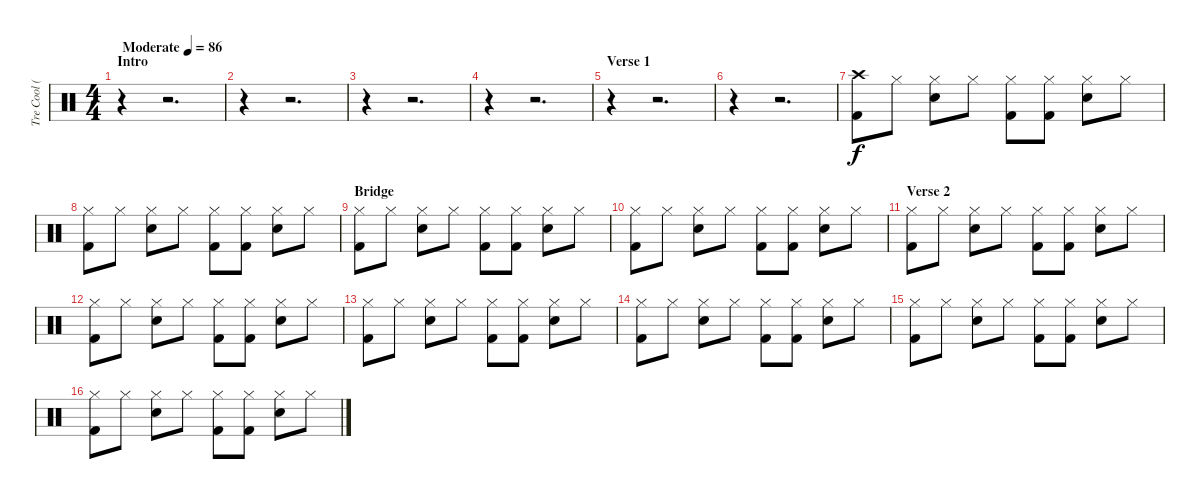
\track ("Tre Cool (Drums)" "Tre Cool (") {instrument percussion}
\staff {score}
\articulation defaults
\ts (4 4)
\section ("" "Intro")
\tempo (86 "Moderate")
\clef neutral
\ks c
r.4{dy f} r.2{d} |
r.4 r.2{d} |
r.4 r.2{d} |
r.4 r.2{d} |
\section ("" "Verse 1")
r.4 r.2{d} |
r.4 r.2{d} |
("Crash high (hit)" "Kick (hit) 2").8 "Hi-Hat (closed)".8 ("Hi-Hat (closed)" "Snare (hit) 2").8 "Hi-Hat (closed)".8 ("Hi-Hat (closed)" "Kick (hit) 2").8 ("Hi-Hat (closed)" "Kick (hit) 2").8 ("Hi-Hat (closed)" "Snare (hit) 2").8 "Hi-Hat (closed)".8 |
("Hi-Hat (closed)" "Kick (hit) 2").8 "Hi-Hat (closed)".8 ("Hi-Hat (closed)" "Snare (hit) 2").8 "Hi-Hat (closed)".8 ("Hi-Hat (closed)" "Kick (hit) 2").8 ("Hi-Hat (closed)" "Kick (hit) 2").8 ("Hi-Hat (closed)" "Snare (hit) 2").8 "Hi-Hat (closed)".8 |
\section ("" "Bridge")
("Hi-Hat (closed)" "Kick (hit) 2").8 "Hi-Hat (closed)".8 ("Hi-Hat (closed)" "Snare (hit) 2").8 "Hi-Hat (closed)".8 ("Hi-Hat (closed)" "Kick (hit) 2").8 ("Hi-Hat (closed)" "Kick (hit) 2").8 ("Hi-Hat (closed)" "Snare (hit) 2").8 "Hi-Hat (closed)".8 |
("Hi-Hat (closed)" "Kick (hit) 2").8 "Hi-Hat (closed)".8 ("Hi-Hat (closed)" "Snare (hit) 2").8 "Hi-Hat (closed)".8 ("Hi-Hat (closed)" "Kick (hit) 2").8 ("Hi-Hat (closed)" "Kick (hit) 2").8 ("Hi-Hat (closed)" "Snare (hit) 2").8 "Hi-Hat (closed)".8 |
\section ("" "Verse 2")
("Hi-Hat (closed)" "Kick (hit) 2").8 "Hi-Hat (closed)".8 ("Hi-Hat (closed)" "Snare (hit) 2").8 "Hi-Hat (closed)".8 ("Hi-Hat (closed)" "Kick (hit) 2").8 ("Hi-Hat (closed)" "Kick (hit) 2").8 ("Hi-Hat (closed)" "Snare (hit) 2").8 "Hi-Hat (closed)".8 |
("Hi-Hat (closed)" "Kick (hit) 2").8 "Hi-Hat (closed)".8 ("Hi-Hat (closed)" "Snare (hit) 2").8 "Hi-Hat (closed)".8 ("Hi-Hat (closed)" "Kick (hit) 2").8 ("Hi-Hat (closed)" "Kick (hit) 2").8 ("Hi-Hat (closed)" "Snare (hit) 2").8 "Hi-Hat (closed)".8 |
("Hi-Hat (closed)" "Kick (hit) 2").8 "Hi-Hat (closed)".8 ("Hi-Hat (closed)" "Snare (hit) 2").8 "Hi-Hat (closed)".8 ("Hi-Hat (closed)" "Kick (hit) 2").8 ("Hi-Hat (closed)" "Kick (hit) 2").8 ("Hi-Hat (closed)" "Snare (hit) 2").8 "Hi-Hat (closed)".8 |
("Hi-Hat (closed)" "Kick (hit) 2").8 "Hi-Hat (closed)".8 ("Hi-Hat (closed)" "Snare (hit) 2").8 "Hi-Hat (closed)".8 ("Hi-Hat (closed)" "Kick (hit) 2").8 ("Hi-Hat (closed)" "Kick (hit) 2").8 ("Hi-Hat (closed)" "Snare (hit) 2").8 "Hi-Hat (closed)".8 |
("Hi-Hat (closed)" "Kick (hit) 2").8 "Hi-Hat (closed)".8 ("Hi-Hat (closed)" "Snare (hit) 2").8 "Hi-Hat (closed)".8 ("Hi-Hat (closed)" "Kick (hit) 2").8 ("Hi-Hat (closed)" "Kick (hit) 2").8 ("Hi-Hat (closed)" "Snare (hit) 2").8 "Hi-Hat (closed)".8 |
("Hi-Hat (closed)" "Kick (hit) 2").8 "Hi-Hat (closed)".8 ("Hi-Hat (closed)" "Snare (hit) 2").8 "Hi-Hat (closed)".8 ("Hi-Hat (closed)" "Kick (hit) 2").8 ("Hi-Hat (closed)" "Kick (hit) 2").8 ("Hi-Hat (closed)" "Snare (hit) 2").8 "Hi-Hat (closed)".8
